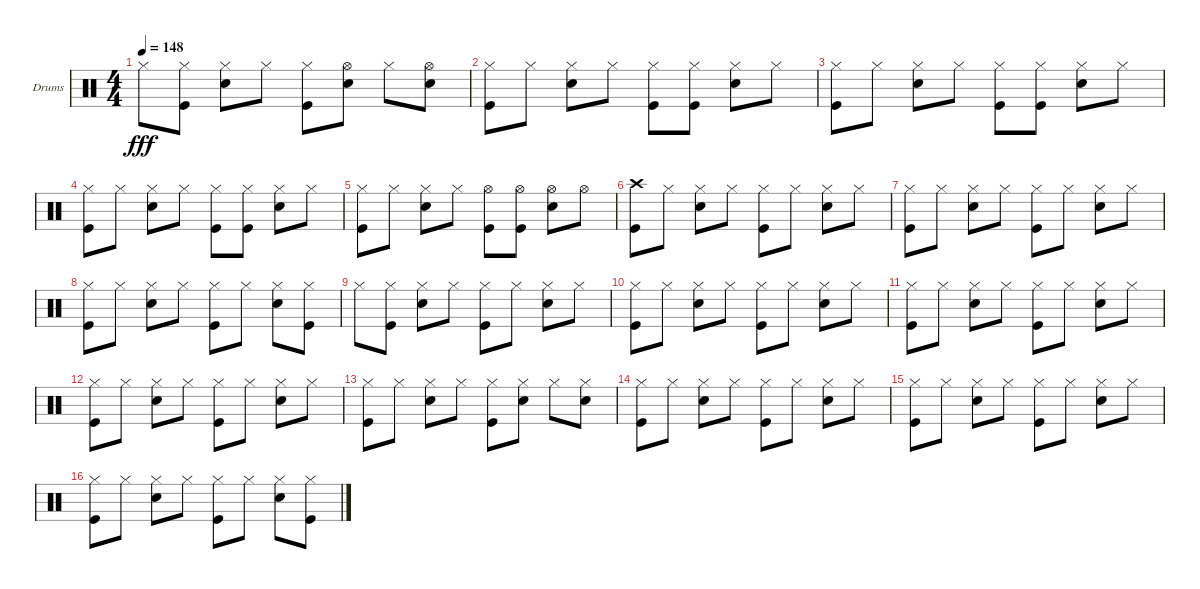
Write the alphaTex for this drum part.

\bracketExtendMode groupsimilarinstruments
\firstSystemTrackNameOrientation horizontal
\otherSystemsTrackNameOrientation horizontal
\track ("James Kottak" "Drums") {instrument percussion}
\staff {score}
\articulation defaults
\ts (4 4)
\tempo 148
\clef neutral
\ks c "Hi-Hat (closed)".8{dy fff}
("Kick (hit)" "Hi-Hat (closed)").8 ("Snare (hit) 2" "Hi-Hat (closed)").8 "Hi-Hat (closed)".8 ("Hi-Hat (closed)" "Kick (hit)").8 ("Hi-Hat (open)" "Snare (hit) 2").8 "Hi-Hat (closed)".8 ("Hi-Hat (open)" "Snare (hit) 2").8 |
("Kick (hit)" "Hi-Hat (closed)").8 "Hi-Hat (closed)".8 ("Hi-Hat (closed)" "Snare (hit) 2").8 "Hi-Hat (closed)".8 ("Hi-Hat (closed)" "Kick (hit)").8 ("Hi-Hat (closed)" "Kick (hit)").8 ("Hi-Hat (closed)" "Snare (hit) 2").8 "Hi-Hat (closed)".8 |
("Kick (hit)" "Hi-Hat (closed)").8 "Hi-Hat (closed)".8 ("Hi-Hat (closed)" "Snare (hit) 2").8 "Hi-Hat (closed)".8 ("Hi-Hat (closed)" "Kick (hit)").8 ("Hi-Hat (closed)" "Kick (hit)").8 ("Hi-Hat (closed)" "Snare (hit) 2").8 "Hi-Hat (closed)".8 |
("Kick (hit)" "Hi-Hat (closed)").8 "Hi-Hat (closed)".8 ("Hi-Hat (closed)" "Snare (hit) 2").8 "Hi-Hat (closed)".8 ("Hi-Hat (closed)" "Kick (hit)").8 ("Hi-Hat (closed)" "Kick (hit)").8 ("Hi-Hat (closed)" "Snare (hit) 2").8 "Hi-Hat (closed)".8 |
("Kick (hit)" "Hi-Hat (closed)").8 "Hi-Hat (closed)".8 ("Hi-Hat (closed)" "Snare (hit) 2").8 "Hi-Hat (closed)".8 ("Hi-Hat (open)" "Kick (hit)").8 ("Hi-Hat (open)" "Kick (hit)").8 ("Hi-Hat (open)" "Snare (hit) 2").8 "Hi-Hat (open)".8 |
("Kick (hit)" "Crash high (hit)").8 "Hi-Hat (closed)".8 ("Hi-Hat (closed)" "Snare (hit) 2").8 "Hi-Hat (closed)".8 ("Hi-Hat (closed)" "Kick (hit)").8 "Hi-Hat (closed)".8 ("Hi-Hat (closed)" "Snare (hit) 2").8 "Hi-Hat (closed)".8 |
("Kick (hit)" "Hi-Hat (closed)").8 "Hi-Hat (closed)".8 ("Hi-Hat (closed)" "Snare (hit) 2").8 "Hi-Hat (closed)".8 ("Hi-Hat (closed)" "Kick (hit)").8 "Hi-Hat (closed)".8 ("Hi-Hat (closed)" "Snare (hit) 2").8 "Hi-Hat (closed)".8 |
("Kick (hit)" "Hi-Hat (closed)").8 "Hi-Hat (closed)".8 ("Hi-Hat (closed)" "Snare (hit) 2").8 "Hi-Hat (closed)".8 ("Hi-Hat (closed)" "Kick (hit)").8 "Hi-Hat (closed)".8 ("Hi-Hat (closed)" "Snare (hit) 2").8 ("Hi-Hat (closed)" "Kick (hit)").8 |
"Hi-Hat (closed)".8 ("Kick (hit)" "Hi-Hat (closed)").8 ("Snare (hit) 2" "Hi-Hat (closed)").8 "Hi-Hat (closed)".8 ("Hi-Hat (closed)" "Kick (hit)").8 "Hi-Hat (closed)".8 ("Hi-Hat (closed)" "Snare (hit) 2").8 "Hi-Hat (closed)".8 |
("Kick (hit)" "Hi-Hat (closed)").8 "Hi-Hat (closed)".8 ("Hi-Hat (closed)" "Snare (hit) 2").8 "Hi-Hat (closed)".8 ("Hi-Hat (closed)" "Kick (hit)").8 "Hi-Hat (closed)".8 ("Hi-Hat (closed)" "Snare (hit) 2").8 "Hi-Hat (closed)".8 |
("Kick (hit)" "Hi-Hat (closed)").8 "Hi-Hat (closed)".8 ("Hi-Hat (closed)" "Snare (hit) 2").8 "Hi-Hat (closed)".8 ("Hi-Hat (closed)" "Kick (hit)").8 "Hi-Hat (closed)".8 ("Hi-Hat (closed)" "Snare (hit) 2").8 "Hi-Hat (closed)".8 |
("Kick (hit)" "Hi-Hat (closed)").8 "Hi-Hat (closed)".8 ("Hi-Hat (closed)" "Snare (hit) 2").8 "Hi-Hat (closed)".8 ("Hi-Hat (closed)" "Kick (hit)").8 "Hi-Hat (closed)".8 ("Hi-Hat (closed)" "Snare (hit) 2").8 "Hi-Hat (closed)".8 |
("Hi-Hat (closed)" "Kick (hit)").8 "Hi-Hat (closed)".8 ("Snare (hit) 2" "Hi-Hat (closed)").8 "Hi-Hat (closed)".8 ("Hi-Hat (closed)" "Kick (hit)").8 ("Hi-Hat (closed)" "Snare (hit) 2").8 "Hi-Hat (closed)".8 ("Hi-Hat (closed)" "Snare (hit) 2").8 |
("Kick (hit)" "Hi-Hat (closed)").8 "Hi-Hat (closed)".8 ("Hi-Hat (closed)" "Snare (hit) 2").8 "Hi-Hat (closed)".8 ("Hi-Hat (closed)" "Kick (hit)").8 "Hi-Hat (closed)".8 ("Hi-Hat (closed)" "Snare (hit) 2").8 "Hi-Hat (closed)".8 |
("Kick (hit)" "Hi-Hat (closed)").8 "Hi-Hat (closed)".8 ("Hi-Hat (closed)" "Snare (hit) 2").8 "Hi-Hat (closed)".8 ("Hi-Hat (closed)" "Kick (hit)").8 "Hi-Hat (closed)".8 ("Hi-Hat (closed)" "Snare (hit) 2").8 "Hi-Hat (closed)".8 |
("Kick (hit)" "Hi-Hat (closed)").8 "Hi-Hat (closed)".8 ("Hi-Hat (closed)" "Snare (hit) 2").8 "Hi-Hat (closed)".8 ("Hi-Hat (closed)" "Kick (hit)").8 "Hi-Hat (closed)".8 ("Hi-Hat (closed)" "Snare (hit) 2").8 ("Hi-Hat (closed)" "Kick (hit)").8
